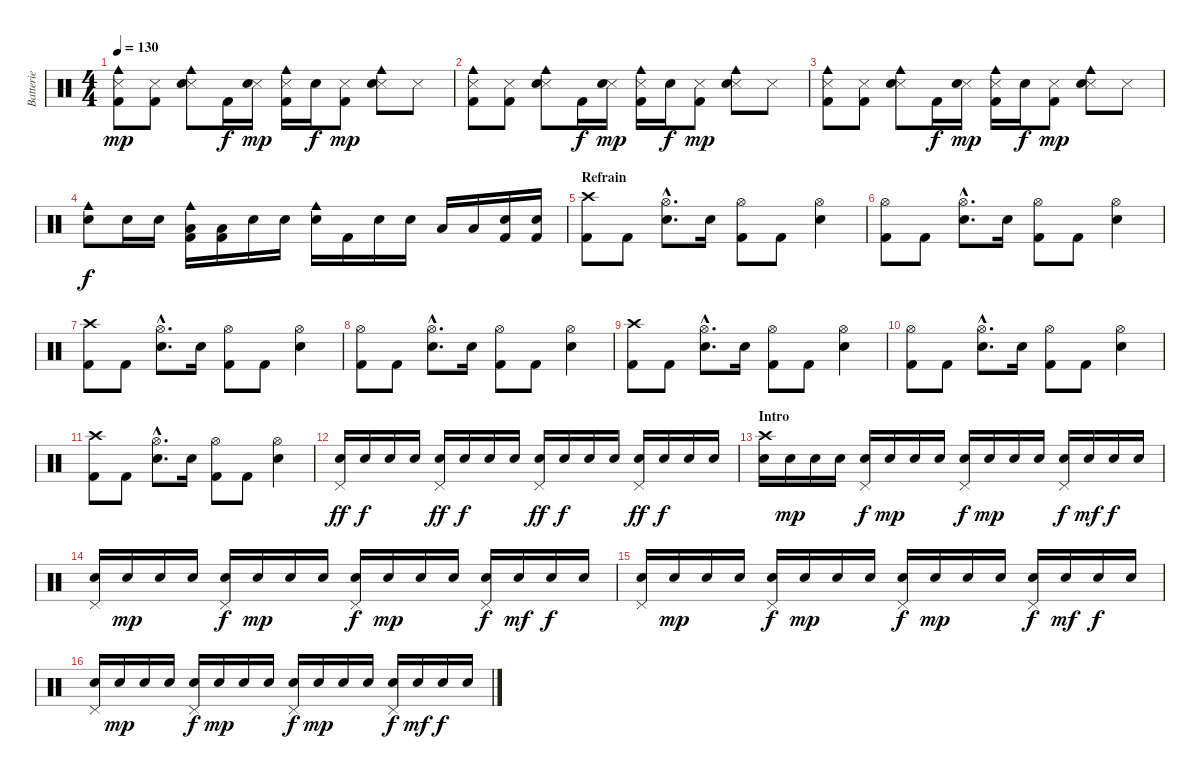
\track ("Batterie" "Batterie") {instrument percussion}
\staff {score}
\articulation defaults
\ts (4 4)
\tempo 130
\clef neutral
\ks c
("Cowbell medium (hit)" "Snare (side stick) 3" "Kick (hit) 2").8{dy mp} ("Snare (side stick) 3" "Kick (hit) 2").8 ("Cowbell medium (hit)" "Snare (side stick) 3" "Snare (hit) 2").8 "Kick (hit) 2".16{dy f} ("Snare (side stick) 3" "Snare (hit) 2").16{dy mp} ("Cowbell medium (hit)" "Snare (side stick) 3" "Kick (hit) 2").16 "Snare (hit) 2".16{dy f} ("Snare (side stick) 3" "Kick (hit) 2").8{dy mp} ("Cowbell medium (hit)" "Snare (side stick) 3" "Snare (hit) 2").8 "Snare (side stick) 3".8 |
("Cowbell medium (hit)" "Snare (side stick) 3" "Kick (hit) 2").8 ("Snare (side stick) 3" "Kick (hit) 2").8 ("Cowbell medium (hit)" "Snare (side stick) 3" "Snare (hit) 2").8 "Kick (hit) 2".16{dy f} ("Snare (side stick) 3" "Snare (hit) 2").16{dy mp} ("Cowbell medium (hit)" "Snare (side stick) 3" "Kick (hit) 2").16 "Snare (hit) 2".16{dy f} ("Snare (side stick) 3" "Kick (hit) 2").8{dy mp} ("Cowbell medium (hit)" "Snare (side stick) 3" "Snare (hit) 2").8 "Snare (side stick) 3".8 |
("Cowbell medium (hit)" "Snare (side stick) 3" "Kick (hit) 2").8 ("Snare (side stick) 3" "Kick (hit) 2").8 ("Cowbell medium (hit)" "Snare (side stick) 3" "Snare (hit) 2").8 "Kick (hit) 2".16{dy f} ("Snare (side stick) 3" "Snare (hit) 2").16{dy mp} ("Cowbell medium (hit)" "Snare (side stick) 3" "Kick (hit) 2").16 "Snare (hit) 2".16{dy f} ("Snare (side stick) 3" "Kick (hit) 2").8{dy mp} ("Cowbell medium (hit)" "Snare (side stick) 3" "Snare (hit) 2").8 "Snare (side stick) 3".8 |
("Cowbell medium (hit)" "Snare (hit) 2").8{dy f} "Snare (hit) 2".16 "Snare (hit) 2".16 ("Cowbell medium (hit)" "Low Tom (hit)" "Kick (hit) 2").16 ("Low Tom (hit)" "Kick (hit) 2").16 "Snare (hit) 2".16 "Snare (hit) 2".16 ("Cowbell medium (hit)" "Snare (hit) 2").16 "Kick (hit) 2".16 "Snare (hit) 2".16 "Snare (hit) 2".16 "Low Tom (hit)".16 "Low Tom (hit)".16 ("Snare (hit) 2" "Kick (hit) 2").16 ("Snare (hit) 2" "Kick (hit) 2").16 |
\section ("" "Refrain")
("Crash high (hit)" "Kick (hit) 2").8 "Kick (hit) 2".8 ("Hi-Hat (open)"{hac} "Snare (hit) 2"{hac}).8{d} "Snare (hit) 2".16 ("Hi-Hat (open)" "Kick (hit) 2").8 "Kick (hit) 2".8 ("Hi-Hat (open)" "Snare (hit) 2").4 |
("Hi-Hat (open)" "Kick (hit) 2").8 "Kick (hit) 2".8 ("Hi-Hat (open)"{hac} "Snare (hit) 2"{hac}).8{d} "Snare (hit) 2".16 ("Hi-Hat (open)" "Kick (hit) 2").8 "Kick (hit) 2".8 ("Hi-Hat (open)" "Snare (hit) 2").4 |
("Crash high (hit)" "Kick (hit) 2").8 "Kick (hit) 2".8 ("Hi-Hat (open)"{hac} "Snare (hit) 2"{hac}).8{d} "Snare (hit) 2".16 ("Hi-Hat (open)" "Kick (hit) 2").8 "Kick (hit) 2".8 ("Hi-Hat (open)" "Snare (hit) 2").4 |
("Hi-Hat (open)" "Kick (hit) 2").8 "Kick (hit) 2".8 ("Hi-Hat (open)"{hac} "Snare (hit) 2"{hac}).8{d} "Snare (hit) 2".16 ("Hi-Hat (open)" "Kick (hit) 2").8 "Kick (hit) 2".8 ("Hi-Hat (open)" "Snare (hit) 2").4 |
("Crash high (hit)" "Kick (hit) 2").8 "Kick (hit) 2".8 ("Hi-Hat (open)"{hac} "Snare (hit) 2"{hac}).8{d} "Snare (hit) 2".16 ("Hi-Hat (open)" "Kick (hit) 2").8 "Kick (hit) 2".8 ("Hi-Hat (open)" "Snare (hit) 2").4 |
("Hi-Hat (open)" "Kick (hit) 2").8 "Kick (hit) 2".8 ("Hi-Hat (open)"{hac} "Snare (hit) 2"{hac}).8{d} "Snare (hit) 2".16 ("Hi-Hat (open)" "Kick (hit) 2").8 "Kick (hit) 2".8 ("Hi-Hat (open)" "Snare (hit) 2").4 |
("Crash high (hit)" "Kick (hit) 2").8 "Kick (hit) 2".8 ("Hi-Hat (open)"{hac} "Snare (hit) 2"{hac}).8{d} "Snare (hit) 2".16 ("Hi-Hat (open)" "Kick (hit) 2").8 "Kick (hit) 2".8 ("Hi-Hat (open)" "Snare (hit) 2").4 |
("Pedal Hi-Hat (hit)" "Snare (hit) 2").16{dy ff} "Snare (hit) 2".16{dy f} "Snare (hit) 2".16 "Snare (hit) 2".16 ("Pedal Hi-Hat (hit)" "Snare (hit) 2").16{dy ff} "Snare (hit) 2".16{dy f} "Snare (hit) 2".16 "Snare (hit) 2".16 ("Pedal Hi-Hat (hit)" "Snare (hit) 2").16{dy ff} "Snare (hit) 2".16{dy f} "Snare (hit) 2".16 "Snare (hit) 2".16 ("Pedal Hi-Hat (hit)" "Snare (hit) 2").16{dy ff} "Snare (hit) 2".16{dy f} "Snare (hit) 2".16 "Snare (hit) 2".16 |
\section ("" "Intro")
("Crash high (hit)" "Snare (hit) 2").16{volume 10} "Snare (hit) 2".16{dy mp} "Snare (hit) 2".16 "Snare (hit) 2".16 ("Pedal Hi-Hat (hit)" "Snare (hit) 2").16{dy f} "Snare (hit) 2".16{dy mp} "Snare (hit) 2".16 "Snare (hit) 2".16 ("Pedal Hi-Hat (hit)" "Snare (hit) 2").16{dy f} "Snare (hit) 2".16{dy mp} "Snare (hit) 2".16 "Snare (hit) 2".16 ("Pedal Hi-Hat (hit)" "Snare (hit) 2").16{dy f} "Snare (hit) 2".16{dy mf} "Snare (hit) 2".16{dy f} "Snare (hit) 2".16 |
("Pedal Hi-Hat (hit)" "Snare (hit) 2").16 "Snare (hit) 2".16{dy mp} "Snare (hit) 2".16 "Snare (hit) 2".16 ("Pedal Hi-Hat (hit)" "Snare (hit) 2").16{dy f} "Snare (hit) 2".16{dy mp} "Snare (hit) 2".16 "Snare (hit) 2".16 ("Pedal Hi-Hat (hit)" "Snare (hit) 2").16{dy f} "Snare (hit) 2".16{dy mp} "Snare (hit) 2".16 "Snare (hit) 2".16 ("Pedal Hi-Hat (hit)" "Snare (hit) 2").16{dy f} "Snare (hit) 2".16{dy mf} "Snare (hit) 2".16{dy f} "Snare (hit) 2".16 |
("Pedal Hi-Hat (hit)" "Snare (hit) 2").16{volume 11} "Snare (hit) 2".16{dy mp} "Snare (hit) 2".16 "Snare (hit) 2".16 ("Pedal Hi-Hat (hit)" "Snare (hit) 2").16{dy f} "Snare (hit) 2".16{dy mp} "Snare (hit) 2".16 "Snare (hit) 2".16 ("Pedal Hi-Hat (hit)" "Snare (hit) 2").16{dy f} "Snare (hit) 2".16{dy mp} "Snare (hit) 2".16 "Snare (hit) 2".16 ("Pedal Hi-Hat (hit)" "Snare (hit) 2").16{dy f} "Snare (hit) 2".16{dy mf} "Snare (hit) 2".16{dy f} "Snare (hit) 2".16 |
("Pedal Hi-Hat (hit)" "Snare (hit) 2").16 "Snare (hit) 2".16{dy mp} "Snare (hit) 2".16 "Snare (hit) 2".16 ("Pedal Hi-Hat (hit)" "Snare (hit) 2").16{dy f} "Snare (hit) 2".16{dy mp} "Snare (hit) 2".16 "Snare (hit) 2".16 ("Pedal Hi-Hat (hit)" "Snare (hit) 2").16{dy f} "Snare (hit) 2".16{dy mp} "Snare (hit) 2".16 "Snare (hit) 2".16 ("Pedal Hi-Hat (hit)" "Snare (hit) 2").16{dy f} "Snare (hit) 2".16{dy mf} "Snare (hit) 2".16{dy f} "Snare (hit) 2".16
